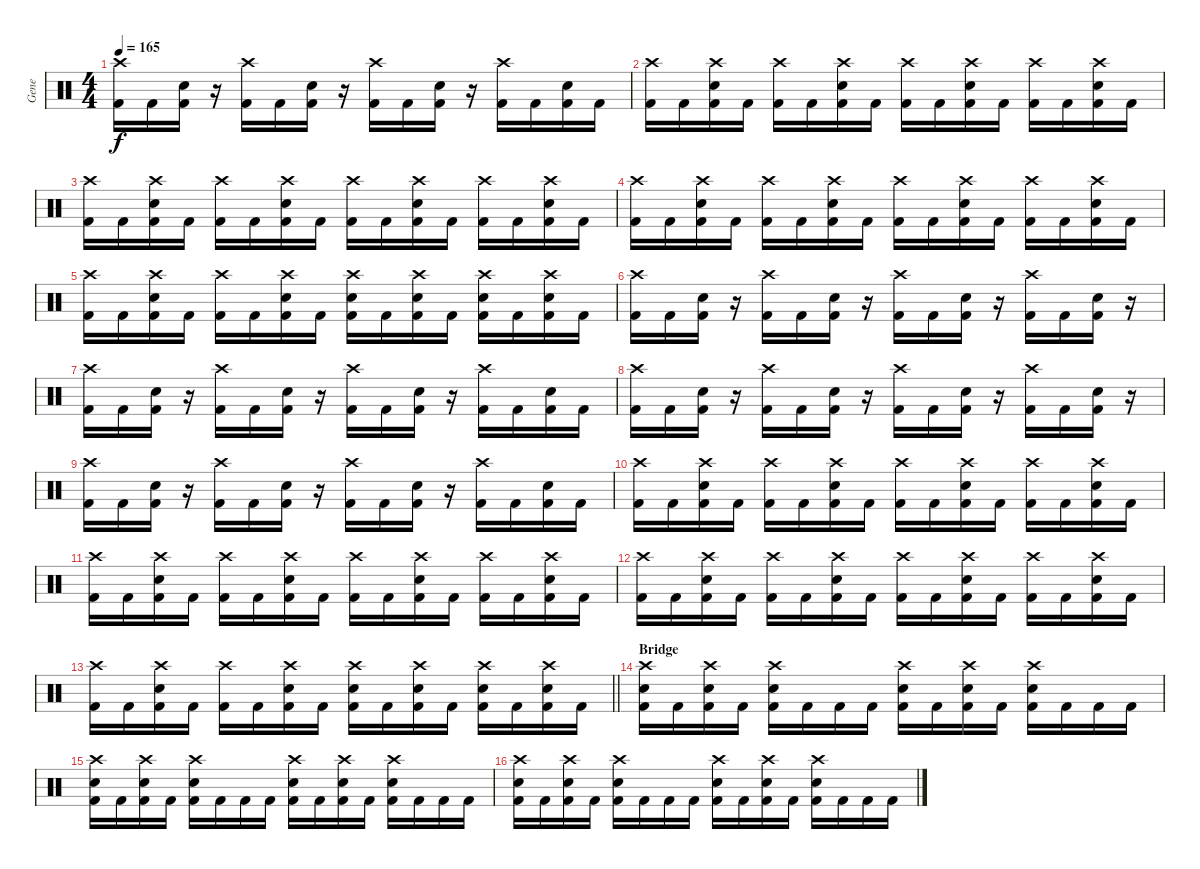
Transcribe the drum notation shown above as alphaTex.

\track ("Gene" "Gene") {instrument percussion}
\staff {score}
\articulation defaults
\ts (4 4)
\tempo 165
\clef neutral
\ks c
("Crash high (hit)" "Kick (hit) 2").16{dy f} "Kick (hit) 2".16 ("Electric Snare (hit)" "Kick (hit) 2").16 r.16 ("Crash high (hit)" "Kick (hit) 2").16 "Kick (hit) 2".16 ("Electric Snare (hit)" "Kick (hit) 2").16 r.16 ("Crash high (hit)" "Kick (hit) 2").16 "Kick (hit) 2".16 ("Electric Snare (hit)" "Kick (hit) 2").16 r.16 ("Crash high (hit)" "Kick (hit) 2").16 "Kick (hit) 2".16 ("Electric Snare (hit)" "Kick (hit) 2").16 "Kick (hit) 2".16 |
("Crash high (hit)" "Kick (hit) 2").16 "Kick (hit) 2".16 ("Crash high (hit)" "Electric Snare (hit)" "Kick (hit) 2").16 "Kick (hit) 2".16 ("Crash high (hit)" "Kick (hit) 2").16 "Kick (hit) 2".16 ("Crash high (hit)" "Electric Snare (hit)" "Kick (hit) 2").16 "Kick (hit) 2".16 ("Crash high (hit)" "Kick (hit) 2").16 "Kick (hit) 2".16 ("Crash high (hit)" "Electric Snare (hit)" "Kick (hit) 2").16 "Kick (hit) 2".16 ("Crash high (hit)" "Kick (hit) 2").16 "Kick (hit) 2".16 ("Crash high (hit)" "Electric Snare (hit)" "Kick (hit) 2").16 "Kick (hit) 2".16 |
("Crash high (hit)" "Kick (hit) 2").16 "Kick (hit) 2".16 ("Crash high (hit)" "Electric Snare (hit)" "Kick (hit) 2").16 "Kick (hit) 2".16 ("Crash high (hit)" "Kick (hit) 2").16 "Kick (hit) 2".16 ("Crash high (hit)" "Electric Snare (hit)" "Kick (hit) 2").16 "Kick (hit) 2".16 ("Crash high (hit)" "Kick (hit) 2").16 "Kick (hit) 2".16 ("Crash high (hit)" "Electric Snare (hit)" "Kick (hit) 2").16 "Kick (hit) 2".16 ("Crash high (hit)" "Kick (hit) 2").16 "Kick (hit) 2".16 ("Crash high (hit)" "Electric Snare (hit)" "Kick (hit) 2").16 "Kick (hit) 2".16 |
("Crash high (hit)" "Kick (hit) 2").16 "Kick (hit) 2".16 ("Crash high (hit)" "Electric Snare (hit)" "Kick (hit) 2").16 "Kick (hit) 2".16 ("Crash high (hit)" "Kick (hit) 2").16 "Kick (hit) 2".16 ("Crash high (hit)" "Electric Snare (hit)" "Kick (hit) 2").16 "Kick (hit) 2".16 ("Crash high (hit)" "Kick (hit) 2").16 "Kick (hit) 2".16 ("Crash high (hit)" "Electric Snare (hit)" "Kick (hit) 2").16 "Kick (hit) 2".16 ("Crash high (hit)" "Kick (hit) 2").16 "Kick (hit) 2".16 ("Crash high (hit)" "Electric Snare (hit)" "Kick (hit) 2").16 "Kick (hit) 2".16 |
("Crash high (hit)" "Kick (hit) 2").16 "Kick (hit) 2".16 ("Crash high (hit)" "Electric Snare (hit)" "Kick (hit) 2").16 "Kick (hit) 2".16 ("Crash high (hit)" "Kick (hit) 2").16 "Kick (hit) 2".16 ("Crash high (hit)" "Electric Snare (hit)" "Kick (hit) 2").16 "Kick (hit) 2".16 ("Crash high (hit)" "Electric Snare (hit)" "Kick (hit) 2").16 "Kick (hit) 2".16 ("Crash high (hit)" "Electric Snare (hit)" "Kick (hit) 2").16 "Kick (hit) 2".16 ("Crash high (hit)" "Electric Snare (hit)" "Kick (hit) 2").16 "Kick (hit) 2".16 ("Crash high (hit)" "Electric Snare (hit)" "Kick (hit) 2").16 "Kick (hit) 2".16 |
("Crash high (hit)" "Kick (hit) 2").16 "Kick (hit) 2".16 ("Electric Snare (hit)" "Kick (hit) 2").16 r.16 ("Crash high (hit)" "Kick (hit) 2").16 "Kick (hit) 2".16 ("Electric Snare (hit)" "Kick (hit) 2").16 r.16 ("Crash high (hit)" "Kick (hit) 2").16 "Kick (hit) 2".16 ("Electric Snare (hit)" "Kick (hit) 2").16 r.16 ("Crash high (hit)" "Kick (hit) 2").16 "Kick (hit) 2".16 ("Electric Snare (hit)" "Kick (hit) 2").16 r.16 |
("Crash high (hit)" "Kick (hit) 2").16 "Kick (hit) 2".16 ("Electric Snare (hit)" "Kick (hit) 2").16 r.16 ("Crash high (hit)" "Kick (hit) 2").16 "Kick (hit) 2".16 ("Electric Snare (hit)" "Kick (hit) 2").16 r.16 ("Crash high (hit)" "Kick (hit) 2").16 "Kick (hit) 2".16 ("Electric Snare (hit)" "Kick (hit) 2").16 r.16 ("Crash high (hit)" "Kick (hit) 2").16 "Kick (hit) 2".16 ("Electric Snare (hit)" "Kick (hit) 2").16 "Kick (hit) 2".16 |
("Crash high (hit)" "Kick (hit) 2").16 "Kick (hit) 2".16 ("Electric Snare (hit)" "Kick (hit) 2").16 r.16 ("Crash high (hit)" "Kick (hit) 2").16 "Kick (hit) 2".16 ("Electric Snare (hit)" "Kick (hit) 2").16 r.16 ("Crash high (hit)" "Kick (hit) 2").16 "Kick (hit) 2".16 ("Electric Snare (hit)" "Kick (hit) 2").16 r.16 ("Crash high (hit)" "Kick (hit) 2").16 "Kick (hit) 2".16 ("Electric Snare (hit)" "Kick (hit) 2").16 r.16 |
("Crash high (hit)" "Kick (hit) 2").16 "Kick (hit) 2".16 ("Electric Snare (hit)" "Kick (hit) 2").16 r.16 ("Crash high (hit)" "Kick (hit) 2").16 "Kick (hit) 2".16 ("Electric Snare (hit)" "Kick (hit) 2").16 r.16 ("Crash high (hit)" "Kick (hit) 2").16 "Kick (hit) 2".16 ("Electric Snare (hit)" "Kick (hit) 2").16 r.16 ("Crash high (hit)" "Kick (hit) 2").16 "Kick (hit) 2".16 ("Electric Snare (hit)" "Kick (hit) 2").16 "Kick (hit) 2".16 |
("Crash high (hit)" "Kick (hit) 2").16 "Kick (hit) 2".16 ("Crash high (hit)" "Electric Snare (hit)" "Kick (hit) 2").16 "Kick (hit) 2".16 ("Crash high (hit)" "Kick (hit) 2").16 "Kick (hit) 2".16 ("Crash high (hit)" "Electric Snare (hit)" "Kick (hit) 2").16 "Kick (hit) 2".16 ("Crash high (hit)" "Kick (hit) 2").16 "Kick (hit) 2".16 ("Crash high (hit)" "Electric Snare (hit)" "Kick (hit) 2").16 "Kick (hit) 2".16 ("Crash high (hit)" "Kick (hit) 2").16 "Kick (hit) 2".16 ("Crash high (hit)" "Electric Snare (hit)" "Kick (hit) 2").16 "Kick (hit) 2".16 |
("Crash high (hit)" "Kick (hit) 2").16 "Kick (hit) 2".16 ("Crash high (hit)" "Electric Snare (hit)" "Kick (hit) 2").16 "Kick (hit) 2".16 ("Crash high (hit)" "Kick (hit) 2").16 "Kick (hit) 2".16 ("Crash high (hit)" "Electric Snare (hit)" "Kick (hit) 2").16 "Kick (hit) 2".16 ("Crash high (hit)" "Kick (hit) 2").16 "Kick (hit) 2".16 ("Crash high (hit)" "Electric Snare (hit)" "Kick (hit) 2").16 "Kick (hit) 2".16 ("Crash high (hit)" "Kick (hit) 2").16 "Kick (hit) 2".16 ("Crash high (hit)" "Electric Snare (hit)" "Kick (hit) 2").16 "Kick (hit) 2".16 |
("Crash high (hit)" "Kick (hit) 2").16 "Kick (hit) 2".16 ("Crash high (hit)" "Electric Snare (hit)" "Kick (hit) 2").16 "Kick (hit) 2".16 ("Crash high (hit)" "Kick (hit) 2").16 "Kick (hit) 2".16 ("Crash high (hit)" "Electric Snare (hit)" "Kick (hit) 2").16 "Kick (hit) 2".16 ("Crash high (hit)" "Kick (hit) 2").16 "Kick (hit) 2".16 ("Crash high (hit)" "Electric Snare (hit)" "Kick (hit) 2").16 "Kick (hit) 2".16 ("Crash high (hit)" "Kick (hit) 2").16 "Kick (hit) 2".16 ("Crash high (hit)" "Electric Snare (hit)" "Kick (hit) 2").16 "Kick (hit) 2".16 |
\barLineRight lightlight
("Crash high (hit)" "Kick (hit) 2").16 "Kick (hit) 2".16 ("Crash high (hit)" "Electric Snare (hit)" "Kick (hit) 2").16 "Kick (hit) 2".16 ("Crash high (hit)" "Kick (hit) 2").16 "Kick (hit) 2".16 ("Crash high (hit)" "Electric Snare (hit)" "Kick (hit) 2").16 "Kick (hit) 2".16 ("Crash high (hit)" "Electric Snare (hit)" "Kick (hit) 2").16 "Kick (hit) 2".16 ("Crash high (hit)" "Electric Snare (hit)" "Kick (hit) 2").16 "Kick (hit) 2".16 ("Crash high (hit)" "Electric Snare (hit)" "Kick (hit) 2").16 "Kick (hit) 2".16 ("Crash high (hit)" "Electric Snare (hit)" "Kick (hit) 2").16 "Kick (hit) 2".16 |
\section ("" "Bridge")
("Electric Snare (hit)" "Crash high (hit)" "Kick (hit) 2").16 "Kick (hit) 2".16 ("Electric Snare (hit)" "Crash high (hit)" "Kick (hit) 2").16 "Kick (hit) 2".16 ("Electric Snare (hit)" "Crash high (hit)" "Kick (hit) 2").16 "Kick (hit) 2".16 "Kick (hit) 2".16 "Kick (hit) 2".16 ("Electric Snare (hit)" "Crash high (hit)" "Kick (hit) 2").16 "Kick (hit) 2".16 ("Electric Snare (hit)" "Crash high (hit)" "Kick (hit) 2").16 "Kick (hit) 2".16 ("Electric Snare (hit)" "Crash high (hit)" "Kick (hit) 2").16 "Kick (hit) 2".16 "Kick (hit) 2".16 "Kick (hit) 2".16 |
("Electric Snare (hit)" "Crash high (hit)" "Kick (hit) 2").16 "Kick (hit) 2".16 ("Electric Snare (hit)" "Crash high (hit)" "Kick (hit) 2").16 "Kick (hit) 2".16 ("Electric Snare (hit)" "Crash high (hit)" "Kick (hit) 2").16 "Kick (hit) 2".16 "Kick (hit) 2".16 "Kick (hit) 2".16 ("Electric Snare (hit)" "Crash high (hit)" "Kick (hit) 2").16 "Kick (hit) 2".16 ("Electric Snare (hit)" "Crash high (hit)" "Kick (hit) 2").16 "Kick (hit) 2".16 ("Electric Snare (hit)" "Crash high (hit)" "Kick (hit) 2").16 "Kick (hit) 2".16 "Kick (hit) 2".16 "Kick (hit) 2".16 |
("Electric Snare (hit)" "Crash high (hit)" "Kick (hit) 2").16 "Kick (hit) 2".16 ("Electric Snare (hit)" "Crash high (hit)" "Kick (hit) 2").16 "Kick (hit) 2".16 ("Electric Snare (hit)" "Crash high (hit)" "Kick (hit) 2").16 "Kick (hit) 2".16 "Kick (hit) 2".16 "Kick (hit) 2".16 ("Electric Snare (hit)" "Crash high (hit)" "Kick (hit) 2").16 "Kick (hit) 2".16 ("Electric Snare (hit)" "Crash high (hit)" "Kick (hit) 2").16 "Kick (hit) 2".16 ("Electric Snare (hit)" "Crash high (hit)" "Kick (hit) 2").16 "Kick (hit) 2".16 "Kick (hit) 2".16 "Kick (hit) 2".16
